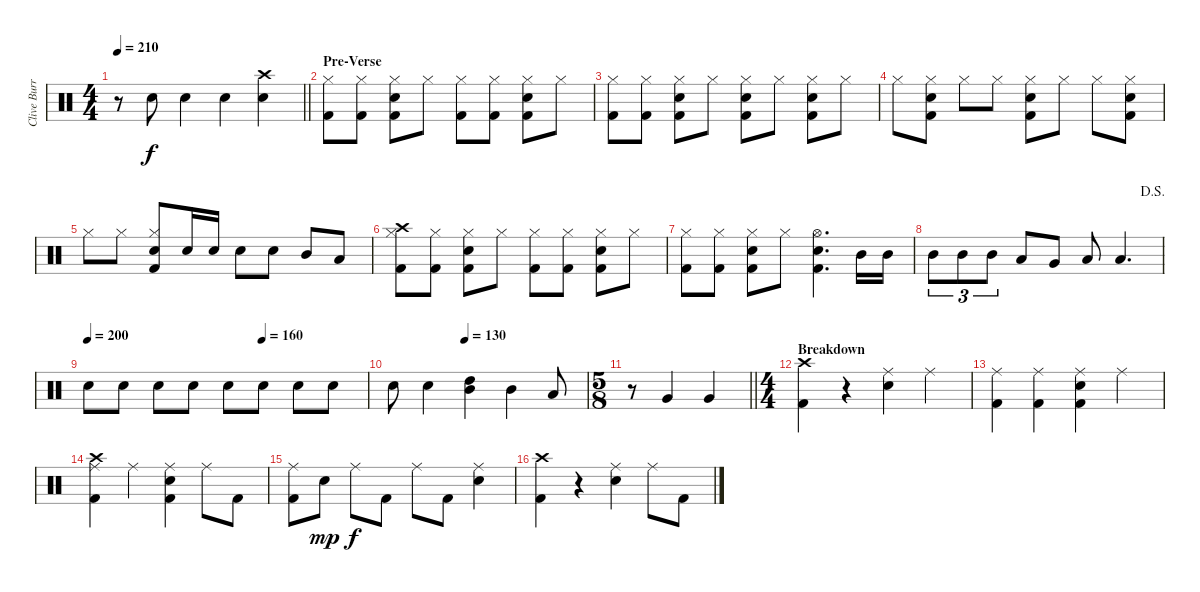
\track ("Clive Burr" "Clive Burr") {instrument percussion}
\staff {score}
\articulation defaults
\ts (4 4)
\tempo 210
\clef neutral
\barLineRight lightlight
\ks c
r.8{dy f} "Snare (hit) 2".8 "Snare (hit) 2".4 "Snare (hit) 2".4 ("Crash high (hit)" "Snare (hit) 2").4 |
\section ("" "Pre-Verse")
("Hi-Hat (closed)" "Kick (hit) 2").8 ("Hi-Hat (closed)" "Kick (hit) 2").8 ("Snare (hit) 2" "Hi-Hat (closed)" "Kick (hit) 2").8 "Hi-Hat (closed)".8 ("Hi-Hat (closed)" "Kick (hit) 2").8 ("Hi-Hat (closed)" "Kick (hit) 2").8 ("Snare (hit) 2" "Hi-Hat (closed)" "Kick (hit) 2").8 "Hi-Hat (closed)".8 |
("Hi-Hat (closed)" "Kick (hit) 2").8 ("Hi-Hat (closed)" "Kick (hit) 2").8 ("Snare (hit) 2" "Hi-Hat (closed)" "Kick (hit) 2").8 "Hi-Hat (closed)".8 ("Snare (hit) 2" "Hi-Hat (closed)" "Kick (hit) 2").8 "Hi-Hat (closed)".8 ("Snare (hit) 2" "Hi-Hat (closed)" "Kick (hit) 2").8 "Hi-Hat (closed)".8 |
"Hi-Hat (closed)".8 ("Snare (hit) 2" "Hi-Hat (closed)" "Kick (hit) 2").8 "Hi-Hat (closed)".8 "Hi-Hat (closed)".8 ("Snare (hit) 2" "Hi-Hat (closed)" "Kick (hit) 2").8 "Hi-Hat (closed)".8 "Hi-Hat (closed)".8 ("Snare (hit) 2" "Hi-Hat (closed)" "Kick (hit) 2").8 |
"Hi-Hat (closed)".8 "Hi-Hat (closed)".8 ("Snare (hit) 2" "Hi-Hat (closed)" "Kick (hit) 2").8 "Snare (hit) 2".16 "Snare (hit) 2".16 "Snare (hit) 2".8 "Snare (hit) 2".8 "Mid Tom (hit)".8 "Low Tom (hit)".8 |
("Crash high (hit)" "Hi-Hat (closed)" "Kick (hit) 2").8 ("Hi-Hat (closed)" "Kick (hit) 2").8 ("Snare (hit) 2" "Hi-Hat (closed)" "Kick (hit) 2").8 "Hi-Hat (closed)".8 ("Hi-Hat (closed)" "Kick (hit) 2").8 ("Hi-Hat (closed)" "Kick (hit) 2").8 ("Snare (hit) 2" "Hi-Hat (closed)" "Kick (hit) 2").8 "Hi-Hat (closed)".8 |
("Hi-Hat (closed)" "Kick (hit) 2").8 ("Hi-Hat (closed)" "Kick (hit) 2").8 ("Snare (hit) 2" "Hi-Hat (closed)" "Kick (hit) 2").8 "Hi-Hat (closed)".8 ("Snare (hit) 2" "Hi-Hat (open)" "Kick (hit) 2").4{d} "Mid Tom (hit)".16 "Mid Tom (hit)".16 |
\jump dalsegno "Mid Tom (hit)".8{tu (3 2)} "Mid Tom (hit)".8{tu (3 2)} "Mid Tom (hit)".8{tu (3 2)} "Low Tom (hit)".8 "Very Low Tom (hit)".8 "Low Tom (hit)".8 "Low Tom (hit)".4{d}
|
\tempo 200
\tempo (160 0.625)
"Snare (hit) 2".8 "Snare (hit) 2".8 "Snare (hit) 2".8 "Snare (hit) 2".8 "Snare (hit) 2".8 "Snare (hit) 2".8 "Snare (hit) 2".8 "Snare (hit) 2".8 |
\tempo (130 0.375)
"Snare (hit) 2".8 "Snare (hit) 2".4 ("High Tom (hit)" "Mid Tom (hit)").4 "Mid Tom (hit)".4 "Low Tom (hit)".8 |
\ts (5 8)
\barLineRight lightlight
r.8 "Very Low Tom (hit)".4 "Very Low Tom (hit)".4 |
\ts (4 4)
\section ("" "Breakdown")
("Crash high (hit)" "Kick (hit) 2").4 r.4 ("Snare (hit) 2" "Ride (middle)").4 "Ride (middle)".4 |
("Ride (middle)" "Kick (hit) 2").4 ("Ride (middle)" "Kick (hit) 2").4 ("Snare (hit) 2" "Ride (middle)" "Kick (hit) 2").4 "Ride (middle)".4 |
("Crash high (hit)" "Ride (middle)" "Kick (hit) 2").4 "Ride (middle)".4 ("Snare (hit) 2" "Ride (middle)" "Kick (hit) 2").4 "Ride (middle)".8 "Kick (hit) 2".8 |
("Ride (middle)" "Kick (hit) 2").8 "Snare (hit) 2".8{dy mp} "Ride (middle)".8{dy f} "Kick (hit) 2".8 "Ride (middle)".8 "Kick (hit) 2".8 ("Snare (hit) 2" "Ride (middle)").4 |
("Crash high (hit)" "Kick (hit) 2").4 r.4 ("Snare (hit) 2" "Ride (middle)").4 "Ride (middle)".8 "Kick (hit) 2".8
